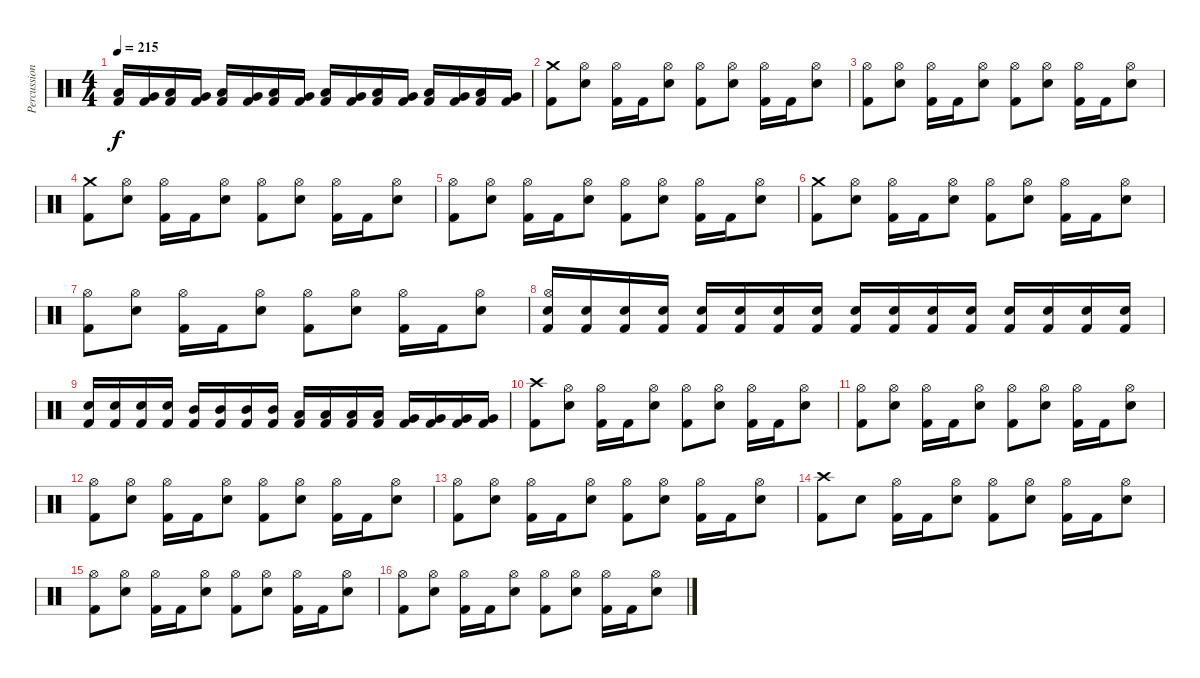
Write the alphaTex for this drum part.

\track ("Percussion" "Percussion") {instrument percussion}
\staff {score}
\articulation defaults
\ts (4 4)
\tempo 215
\clef neutral
\ks c
("Low Tom (hit)" "Kick (hit) 2").16{dy f} ("Very Low Tom (hit)" "Kick (hit) 2").16 ("Low Floor Tom (hit)" "Kick (hit) 2").16 ("Very Low Tom (hit)" "Kick (hit) 2").16 ("Low Tom (hit)" "Kick (hit) 2").16 ("Very Low Tom (hit)" "Kick (hit) 2").16 ("Low Floor Tom (hit)" "Kick (hit) 2").16 ("Very Low Tom (hit)" "Kick (hit) 2").16 ("Low Tom (hit)" "Kick (hit) 2").16 ("Very Low Tom (hit)" "Kick (hit) 2").16 ("Low Floor Tom (hit)" "Kick (hit) 2").16 ("Very Low Tom (hit)" "Kick (hit) 2").16 ("Low Tom (hit)" "Kick (hit) 2").16 ("Very Low Tom (hit)" "Kick (hit) 2").16 ("Low Floor Tom (hit)" "Kick (hit) 2").16 ("Very Low Tom (hit)" "Kick (hit) 2").16 |
("Crash medium (hit)" "Kick (hit) 2").8 ("Hi-Hat (open)" "Snare (hit) 2").8 ("Hi-Hat (open)" "Kick (hit) 2").16 "Kick (hit) 2".16 ("Hi-Hat (open)" "Snare (hit) 2").8 ("Hi-Hat (open)" "Kick (hit) 2").8 ("Hi-Hat (open)" "Snare (hit) 2").8 ("Hi-Hat (open)" "Kick (hit) 2").16 "Kick (hit) 2".16 ("Hi-Hat (open)" "Snare (hit) 2").8 |
("Hi-Hat (open)" "Kick (hit) 2").8 ("Hi-Hat (open)" "Snare (hit) 2").8 ("Hi-Hat (open)" "Kick (hit) 2").16 "Kick (hit) 2".16 ("Hi-Hat (open)" "Snare (hit) 2").8 ("Hi-Hat (open)" "Kick (hit) 2").8 ("Hi-Hat (open)" "Snare (hit) 2").8 ("Hi-Hat (open)" "Kick (hit) 2").16 "Kick (hit) 2".16 ("Hi-Hat (open)" "Snare (hit) 2").8 |
("Crash medium (hit)" "Kick (hit) 2").8 ("Hi-Hat (open)" "Snare (hit) 2").8 ("Hi-Hat (open)" "Kick (hit) 2").16 "Kick (hit) 2".16 ("Hi-Hat (open)" "Snare (hit) 2").8 ("Hi-Hat (open)" "Kick (hit) 2").8 ("Hi-Hat (open)" "Snare (hit) 2").8 ("Hi-Hat (open)" "Kick (hit) 2").16 "Kick (hit) 2".16 ("Hi-Hat (open)" "Snare (hit) 2").8 |
("Hi-Hat (open)" "Kick (hit) 2").8 ("Hi-Hat (open)" "Snare (hit) 2").8 ("Hi-Hat (open)" "Kick (hit) 2").16 "Kick (hit) 2".16 ("Hi-Hat (open)" "Snare (hit) 2").8 ("Hi-Hat (open)" "Kick (hit) 2").8 ("Hi-Hat (open)" "Snare (hit) 2").8 ("Hi-Hat (open)" "Kick (hit) 2").16 "Kick (hit) 2".16 ("Hi-Hat (open)" "Snare (hit) 2").8 |
("Crash medium (hit)" "Kick (hit) 2").8 ("Hi-Hat (open)" "Snare (hit) 2").8 ("Hi-Hat (open)" "Kick (hit) 2").16 "Kick (hit) 2".16 ("Hi-Hat (open)" "Snare (hit) 2").8 ("Hi-Hat (open)" "Kick (hit) 2").8 ("Hi-Hat (open)" "Snare (hit) 2").8 ("Hi-Hat (open)" "Kick (hit) 2").16 "Kick (hit) 2".16 ("Hi-Hat (open)" "Snare (hit) 2").8 |
("Hi-Hat (open)" "Kick (hit) 2").8 ("Hi-Hat (open)" "Snare (hit) 2").8 ("Hi-Hat (open)" "Kick (hit) 2").16 "Kick (hit) 2".16 ("Hi-Hat (open)" "Snare (hit) 2").8 ("Hi-Hat (open)" "Kick (hit) 2").8 ("Hi-Hat (open)" "Snare (hit) 2").8 ("Hi-Hat (open)" "Kick (hit) 2").16 "Kick (hit) 2".16 ("Hi-Hat (open)" "Snare (hit) 2").8 |
("Hi-Hat (open)" "Snare (hit) 2" "Kick (hit) 2").16 ("Snare (hit) 2" "Kick (hit) 2").16 ("Snare (hit) 2" "Kick (hit) 2").16 ("Snare (hit) 2" "Kick (hit) 2").16 ("Snare (hit) 2" "Kick (hit) 2").16 ("Snare (hit) 2" "Kick (hit) 2").16 ("Snare (hit) 2" "Kick (hit) 2").16 ("Snare (hit) 2" "Kick (hit) 2").16 ("Snare (hit) 2" "Kick (hit) 2").16 ("Snare (hit) 2" "Kick (hit) 2").16 ("Snare (hit) 2" "Kick (hit) 2").16 ("Snare (hit) 2" "Kick (hit) 2").16 ("Snare (hit) 2" "Kick (hit) 2").16 ("Snare (hit) 2" "Kick (hit) 2").16 ("Snare (hit) 2" "Kick (hit) 2").16 ("Snare (hit) 2" "Kick (hit) 2").16 |
("Snare (hit) 2" "Kick (hit) 2").16 ("Snare (hit) 2" "Kick (hit) 2").16 ("Snare (hit) 2" "Kick (hit) 2").16 ("Snare (hit) 2" "Kick (hit) 2").16 ("Mid Tom (hit)" "Kick (hit) 2").16 ("Mid Tom (hit)" "Kick (hit) 2").16 ("Mid Tom (hit)" "Kick (hit) 2").16 ("Mid Tom (hit)" "Kick (hit) 2").16 ("Low Tom (hit)" "Kick (hit) 2").16 ("Low Tom (hit)" "Kick (hit) 2").16 ("Low Tom (hit)" "Kick (hit) 2").16 ("Low Tom (hit)" "Kick (hit) 2").16 ("Very Low Tom (hit)" "Kick (hit) 2").16 ("Very Low Tom (hit)" "Kick (hit) 2").16 ("Very Low Tom (hit)" "Kick (hit) 2").16 ("Very Low Tom (hit)" "Kick (hit) 2").16 |
("Crash high (hit)" "Kick (hit) 2").8 ("Hi-Hat (open)" "Snare (hit) 2").8 ("Hi-Hat (open)" "Kick (hit) 2").16 "Kick (hit) 2".16 ("Hi-Hat (open)" "Snare (hit) 2").8 ("Hi-Hat (open)" "Kick (hit) 2").8 ("Hi-Hat (open)" "Snare (hit) 2").8 ("Hi-Hat (open)" "Kick (hit) 2").16 "Kick (hit) 2".16 ("Hi-Hat (open)" "Snare (hit) 2").8 |
("Hi-Hat (open)" "Kick (hit) 2").8 ("Hi-Hat (open)" "Snare (hit) 2").8 ("Hi-Hat (open)" "Kick (hit) 2").16 "Kick (hit) 2".16 ("Hi-Hat (open)" "Snare (hit) 2").8 ("Hi-Hat (open)" "Kick (hit) 2").8 ("Hi-Hat (open)" "Snare (hit) 2").8 ("Hi-Hat (open)" "Kick (hit) 2").16 "Kick (hit) 2".16 ("Hi-Hat (open)" "Snare (hit) 2").8 |
("Hi-Hat (open)" "Kick (hit) 2").8 ("Hi-Hat (open)" "Snare (hit) 2").8 ("Hi-Hat (open)" "Kick (hit) 2").16 "Kick (hit) 2".16 ("Hi-Hat (open)" "Snare (hit) 2").8 ("Hi-Hat (open)" "Kick (hit) 2").8 ("Hi-Hat (open)" "Snare (hit) 2").8 ("Hi-Hat (open)" "Kick (hit) 2").16 "Kick (hit) 2".16 ("Hi-Hat (open)" "Snare (hit) 2").8 |
("Hi-Hat (open)" "Kick (hit) 2").8 ("Hi-Hat (open)" "Snare (hit) 2").8 ("Hi-Hat (open)" "Kick (hit) 2").16 "Kick (hit) 2".16 ("Hi-Hat (open)" "Snare (hit) 2").8 ("Hi-Hat (open)" "Kick (hit) 2").8 ("Hi-Hat (open)" "Snare (hit) 2").8 ("Hi-Hat (open)" "Kick (hit) 2").16 "Kick (hit) 2".16 ("Hi-Hat (open)" "Snare (hit) 2").8 |
("Crash high (hit)" "Kick (hit) 2").8 "Snare (hit) 2".8 ("Hi-Hat (open)" "Kick (hit) 2").16 "Kick (hit) 2".16 ("Hi-Hat (open)" "Snare (hit) 2").8 ("Hi-Hat (open)" "Kick (hit) 2").8 ("Hi-Hat (open)" "Snare (hit) 2").8 ("Hi-Hat (open)" "Kick (hit) 2").16 "Kick (hit) 2".16 ("Hi-Hat (open)" "Snare (hit) 2").8 |
("Hi-Hat (open)" "Kick (hit) 2").8 ("Hi-Hat (open)" "Snare (hit) 2").8 ("Hi-Hat (open)" "Kick (hit) 2").16 "Kick (hit) 2".16 ("Hi-Hat (open)" "Snare (hit) 2").8 ("Hi-Hat (open)" "Kick (hit) 2").8 ("Hi-Hat (open)" "Snare (hit) 2").8 ("Hi-Hat (open)" "Kick (hit) 2").16 "Kick (hit) 2".16 ("Hi-Hat (open)" "Snare (hit) 2").8 |
("Hi-Hat (open)" "Kick (hit) 2").8 ("Hi-Hat (open)" "Snare (hit) 2").8 ("Hi-Hat (open)" "Kick (hit) 2").16 "Kick (hit) 2".16 ("Hi-Hat (open)" "Snare (hit) 2").8 ("Hi-Hat (open)" "Kick (hit) 2").8 ("Hi-Hat (open)" "Snare (hit) 2").8 ("Hi-Hat (open)" "Kick (hit) 2").16 "Kick (hit) 2".16 ("Hi-Hat (open)" "Snare (hit) 2").8
